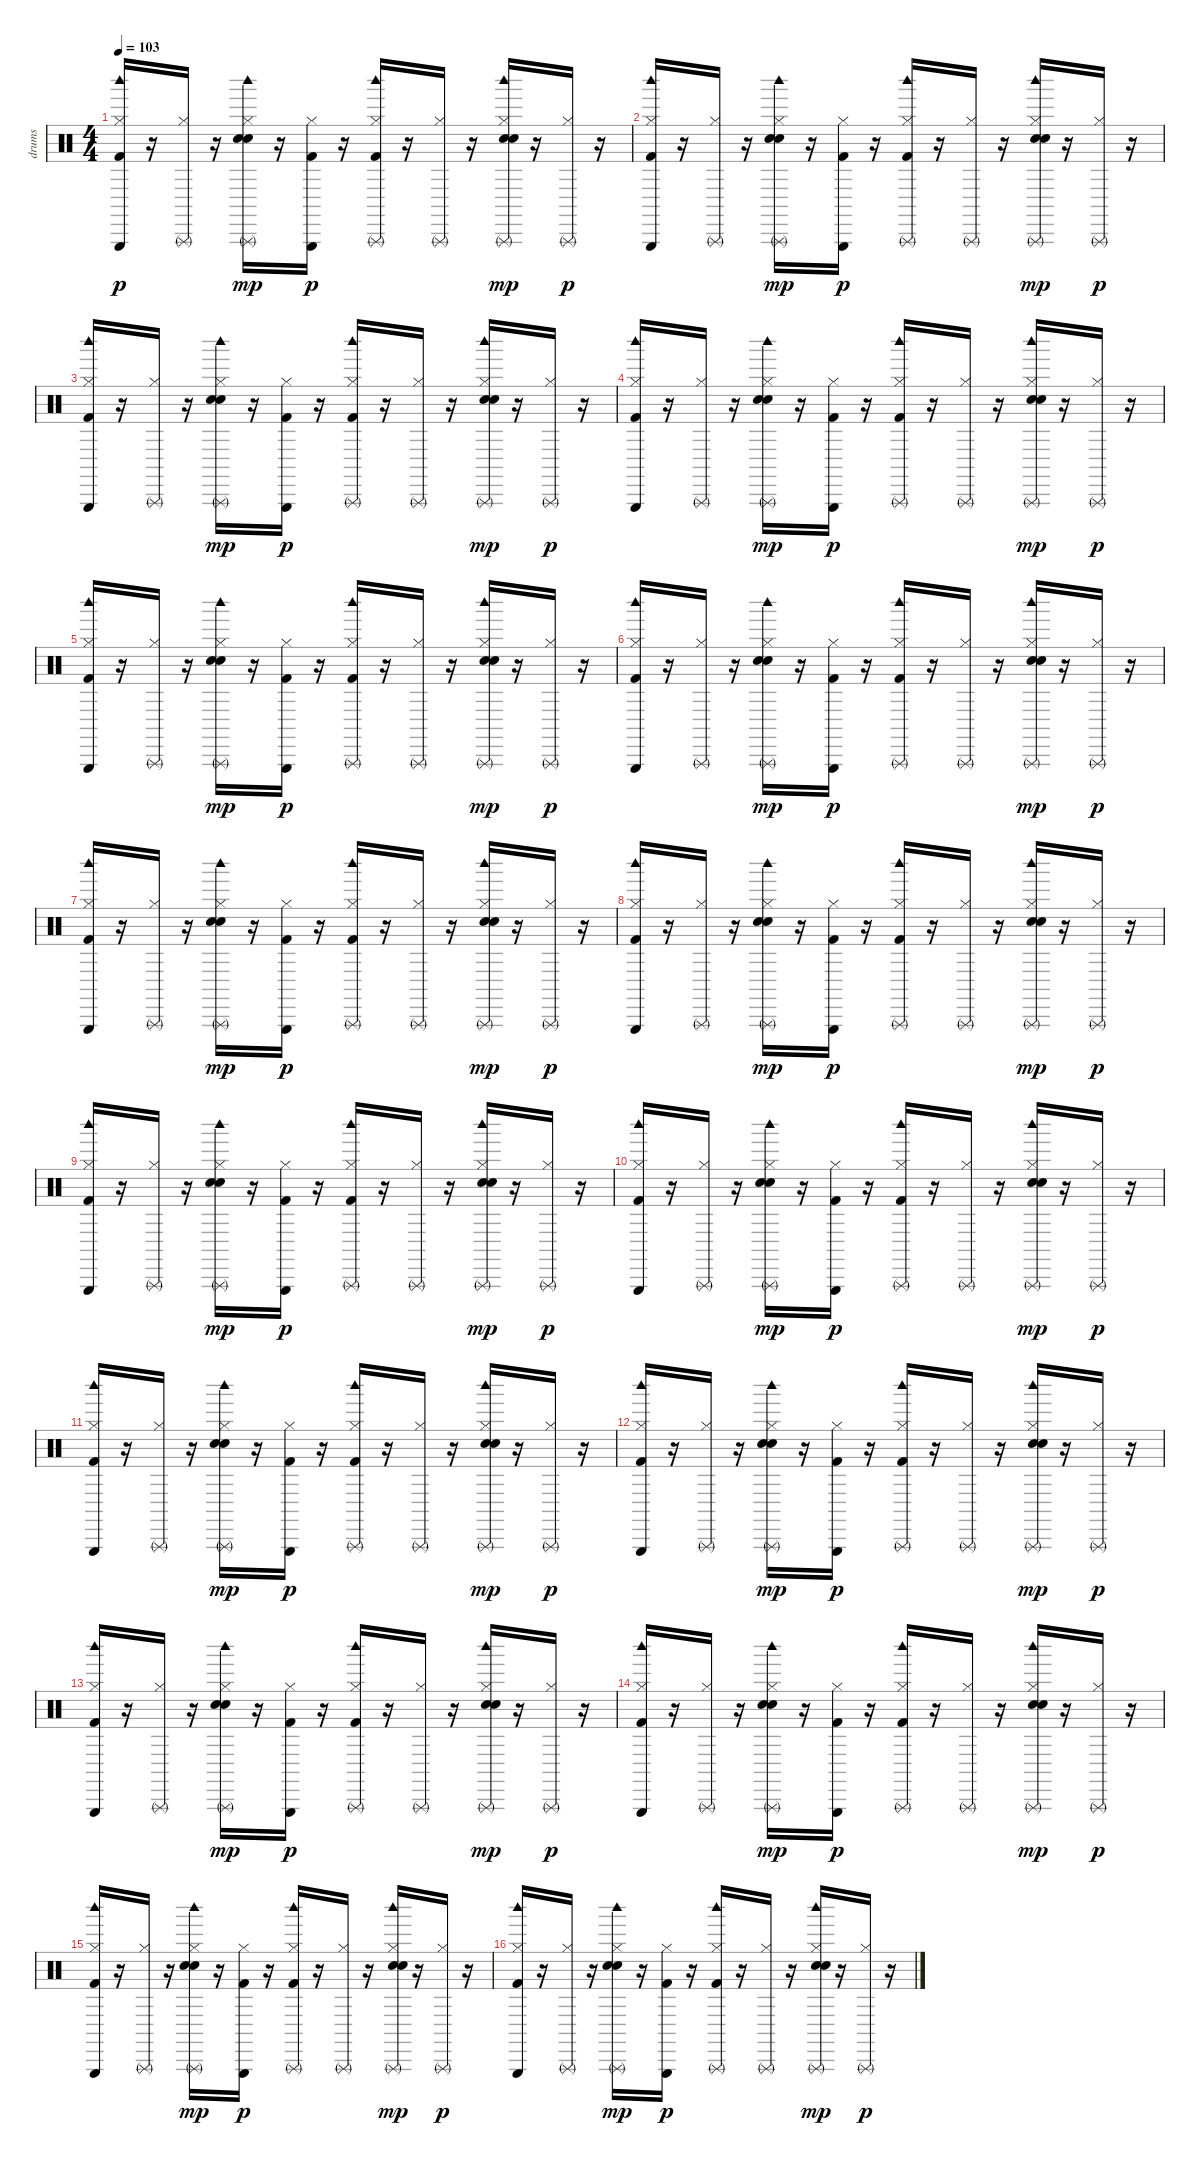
\track ("drums" "drums") {instrument percussion}
\staff {score}
\articulation defaults
\ts (4 4)
\tempo 103
\clef neutral
\ks c
("Hi-Hat (closed)" "Triangle (hit)" "Woodblock high (hit)" "Kick (hit) 2").16{dy p} r.16 ("Hi-Hat (closed)" "Triangle (rnute)").16 r.16 ("Hi-Hat (closed)" "Triangle (rnute)" "Electric Snare (hit)" "Snare (hit) 2" "Woodblock high (hit)").16{dy mp} r.16 ("Hi-Hat (closed)" "Triangle (hit)" "Kick (hit) 2").16{dy p} r.16 ("Hi-Hat (closed)" "Triangle (rnute)" "Woodblock high (hit)" "Kick (hit) 2").16 r.16 ("Hi-Hat (closed)" "Triangle (rnute)").16 r.16 ("Hi-Hat (closed)" "Triangle (rnute)" "Electric Snare (hit)" "Snare (hit) 2" "Woodblock high (hit)").16{dy mp} r.16 ("Hi-Hat (closed)" "Triangle (rnute)").16{dy p} r.16 |
("Hi-Hat (closed)" "Triangle (hit)" "Woodblock high (hit)" "Kick (hit) 2").16 r.16 ("Hi-Hat (closed)" "Triangle (rnute)").16 r.16 ("Hi-Hat (closed)" "Triangle (rnute)" "Electric Snare (hit)" "Snare (hit) 2" "Woodblock high (hit)").16{dy mp} r.16 ("Hi-Hat (closed)" "Triangle (hit)" "Kick (hit) 2").16{dy p} r.16 ("Hi-Hat (closed)" "Triangle (rnute)" "Woodblock high (hit)" "Kick (hit) 2").16 r.16 ("Hi-Hat (closed)" "Triangle (rnute)").16 r.16 ("Hi-Hat (closed)" "Triangle (rnute)" "Electric Snare (hit)" "Snare (hit) 2" "Woodblock high (hit)").16{dy mp} r.16 ("Hi-Hat (closed)" "Triangle (rnute)").16{dy p} r.16 |
("Hi-Hat (closed)" "Triangle (hit)" "Woodblock high (hit)" "Kick (hit) 2").16 r.16 ("Hi-Hat (closed)" "Triangle (rnute)").16 r.16 ("Hi-Hat (closed)" "Triangle (rnute)" "Electric Snare (hit)" "Snare (hit) 2" "Woodblock high (hit)").16{dy mp} r.16 ("Hi-Hat (closed)" "Triangle (hit)" "Kick (hit) 2").16{dy p} r.16 ("Hi-Hat (closed)" "Triangle (rnute)" "Woodblock high (hit)" "Kick (hit) 2").16 r.16 ("Hi-Hat (closed)" "Triangle (rnute)").16 r.16 ("Hi-Hat (closed)" "Triangle (rnute)" "Electric Snare (hit)" "Snare (hit) 2" "Woodblock high (hit)").16{dy mp} r.16 ("Hi-Hat (closed)" "Triangle (rnute)").16{dy p} r.16 |
("Hi-Hat (closed)" "Triangle (hit)" "Woodblock high (hit)" "Kick (hit) 2").16 r.16 ("Hi-Hat (closed)" "Triangle (rnute)").16 r.16 ("Hi-Hat (closed)" "Triangle (rnute)" "Electric Snare (hit)" "Snare (hit) 2" "Woodblock high (hit)").16{dy mp} r.16 ("Hi-Hat (closed)" "Triangle (hit)" "Kick (hit) 2").16{dy p} r.16 ("Hi-Hat (closed)" "Triangle (rnute)" "Woodblock high (hit)" "Kick (hit) 2").16 r.16 ("Hi-Hat (closed)" "Triangle (rnute)").16 r.16 ("Hi-Hat (closed)" "Triangle (rnute)" "Electric Snare (hit)" "Snare (hit) 2" "Woodblock high (hit)").16{dy mp} r.16 ("Hi-Hat (closed)" "Triangle (rnute)").16{dy p} r.16 |
("Hi-Hat (closed)" "Triangle (hit)" "Woodblock high (hit)" "Kick (hit) 2").16 r.16 ("Hi-Hat (closed)" "Triangle (rnute)").16 r.16 ("Hi-Hat (closed)" "Triangle (rnute)" "Electric Snare (hit)" "Snare (hit) 2" "Woodblock high (hit)").16{dy mp} r.16 ("Hi-Hat (closed)" "Triangle (hit)" "Kick (hit) 2").16{dy p} r.16 ("Hi-Hat (closed)" "Triangle (rnute)" "Woodblock high (hit)" "Kick (hit) 2").16 r.16 ("Hi-Hat (closed)" "Triangle (rnute)").16 r.16 ("Hi-Hat (closed)" "Triangle (rnute)" "Electric Snare (hit)" "Snare (hit) 2" "Woodblock high (hit)").16{dy mp} r.16 ("Hi-Hat (closed)" "Triangle (rnute)").16{dy p} r.16 |
("Hi-Hat (closed)" "Triangle (hit)" "Woodblock high (hit)" "Kick (hit) 2").16 r.16 ("Hi-Hat (closed)" "Triangle (rnute)").16 r.16 ("Hi-Hat (closed)" "Triangle (rnute)" "Electric Snare (hit)" "Snare (hit) 2" "Woodblock high (hit)").16{dy mp} r.16 ("Hi-Hat (closed)" "Triangle (hit)" "Kick (hit) 2").16{dy p} r.16 ("Hi-Hat (closed)" "Triangle (rnute)" "Woodblock high (hit)" "Kick (hit) 2").16 r.16 ("Hi-Hat (closed)" "Triangle (rnute)").16 r.16 ("Hi-Hat (closed)" "Triangle (rnute)" "Electric Snare (hit)" "Snare (hit) 2" "Woodblock high (hit)").16{dy mp} r.16 ("Hi-Hat (closed)" "Triangle (rnute)").16{dy p} r.16 |
("Hi-Hat (closed)" "Triangle (hit)" "Woodblock high (hit)" "Kick (hit) 2").16 r.16 ("Hi-Hat (closed)" "Triangle (rnute)").16 r.16 ("Hi-Hat (closed)" "Triangle (rnute)" "Electric Snare (hit)" "Snare (hit) 2" "Woodblock high (hit)").16{dy mp} r.16 ("Hi-Hat (closed)" "Triangle (hit)" "Kick (hit) 2").16{dy p} r.16 ("Hi-Hat (closed)" "Triangle (rnute)" "Woodblock high (hit)" "Kick (hit) 2").16 r.16 ("Hi-Hat (closed)" "Triangle (rnute)").16 r.16 ("Hi-Hat (closed)" "Triangle (rnute)" "Electric Snare (hit)" "Snare (hit) 2" "Woodblock high (hit)").16{dy mp} r.16 ("Hi-Hat (closed)" "Triangle (rnute)").16{dy p} r.16 |
("Hi-Hat (closed)" "Triangle (hit)" "Woodblock high (hit)" "Kick (hit) 2").16 r.16 ("Hi-Hat (closed)" "Triangle (rnute)").16 r.16 ("Hi-Hat (closed)" "Triangle (rnute)" "Electric Snare (hit)" "Snare (hit) 2" "Woodblock high (hit)").16{dy mp} r.16 ("Hi-Hat (closed)" "Triangle (hit)" "Kick (hit) 2").16{dy p} r.16 ("Hi-Hat (closed)" "Triangle (rnute)" "Woodblock high (hit)" "Kick (hit) 2").16 r.16 ("Hi-Hat (closed)" "Triangle (rnute)").16 r.16 ("Hi-Hat (closed)" "Triangle (rnute)" "Electric Snare (hit)" "Snare (hit) 2" "Woodblock high (hit)").16{dy mp} r.16 ("Hi-Hat (closed)" "Triangle (rnute)").16{dy p} r.16 |
("Hi-Hat (closed)" "Triangle (hit)" "Woodblock high (hit)" "Kick (hit) 2").16 r.16 ("Hi-Hat (closed)" "Triangle (rnute)").16 r.16 ("Hi-Hat (closed)" "Triangle (rnute)" "Electric Snare (hit)" "Snare (hit) 2" "Woodblock high (hit)").16{dy mp} r.16 ("Hi-Hat (closed)" "Triangle (hit)" "Kick (hit) 2").16{dy p} r.16 ("Hi-Hat (closed)" "Triangle (rnute)" "Woodblock high (hit)" "Kick (hit) 2").16 r.16 ("Hi-Hat (closed)" "Triangle (rnute)").16 r.16 ("Hi-Hat (closed)" "Triangle (rnute)" "Electric Snare (hit)" "Snare (hit) 2" "Woodblock high (hit)").16{dy mp} r.16 ("Hi-Hat (closed)" "Triangle (rnute)").16{dy p} r.16 |
("Hi-Hat (closed)" "Triangle (hit)" "Woodblock high (hit)" "Kick (hit) 2").16 r.16 ("Hi-Hat (closed)" "Triangle (rnute)").16 r.16 ("Hi-Hat (closed)" "Triangle (rnute)" "Electric Snare (hit)" "Snare (hit) 2" "Woodblock high (hit)").16{dy mp} r.16 ("Hi-Hat (closed)" "Triangle (hit)" "Kick (hit) 2").16{dy p} r.16 ("Hi-Hat (closed)" "Triangle (rnute)" "Woodblock high (hit)" "Kick (hit) 2").16 r.16 ("Hi-Hat (closed)" "Triangle (rnute)").16 r.16 ("Hi-Hat (closed)" "Triangle (rnute)" "Electric Snare (hit)" "Snare (hit) 2" "Woodblock high (hit)").16{dy mp} r.16 ("Hi-Hat (closed)" "Triangle (rnute)").16{dy p} r.16 |
("Hi-Hat (closed)" "Triangle (hit)" "Woodblock high (hit)" "Kick (hit) 2").16 r.16 ("Hi-Hat (closed)" "Triangle (rnute)").16 r.16 ("Hi-Hat (closed)" "Triangle (rnute)" "Electric Snare (hit)" "Snare (hit) 2" "Woodblock high (hit)").16{dy mp} r.16 ("Hi-Hat (closed)" "Triangle (hit)" "Kick (hit) 2").16{dy p} r.16 ("Hi-Hat (closed)" "Triangle (rnute)" "Woodblock high (hit)" "Kick (hit) 2").16 r.16 ("Hi-Hat (closed)" "Triangle (rnute)").16 r.16 ("Hi-Hat (closed)" "Triangle (rnute)" "Electric Snare (hit)" "Snare (hit) 2" "Woodblock high (hit)").16{dy mp} r.16 ("Hi-Hat (closed)" "Triangle (rnute)").16{dy p} r.16 |
("Hi-Hat (closed)" "Triangle (hit)" "Woodblock high (hit)" "Kick (hit) 2").16 r.16 ("Hi-Hat (closed)" "Triangle (rnute)").16 r.16 ("Hi-Hat (closed)" "Triangle (rnute)" "Electric Snare (hit)" "Snare (hit) 2" "Woodblock high (hit)").16{dy mp} r.16 ("Hi-Hat (closed)" "Triangle (hit)" "Kick (hit) 2").16{dy p} r.16 ("Hi-Hat (closed)" "Triangle (rnute)" "Woodblock high (hit)" "Kick (hit) 2").16 r.16 ("Hi-Hat (closed)" "Triangle (rnute)").16 r.16 ("Hi-Hat (closed)" "Triangle (rnute)" "Electric Snare (hit)" "Snare (hit) 2" "Woodblock high (hit)").16{dy mp} r.16 ("Hi-Hat (closed)" "Triangle (rnute)").16{dy p} r.16 |
("Hi-Hat (closed)" "Triangle (hit)" "Woodblock high (hit)" "Kick (hit) 2").16 r.16 ("Hi-Hat (closed)" "Triangle (rnute)").16 r.16 ("Hi-Hat (closed)" "Triangle (rnute)" "Electric Snare (hit)" "Snare (hit) 2" "Woodblock high (hit)").16{dy mp} r.16 ("Hi-Hat (closed)" "Triangle (hit)" "Kick (hit) 2").16{dy p} r.16 ("Hi-Hat (closed)" "Triangle (rnute)" "Woodblock high (hit)" "Kick (hit) 2").16 r.16 ("Hi-Hat (closed)" "Triangle (rnute)").16 r.16 ("Hi-Hat (closed)" "Triangle (rnute)" "Electric Snare (hit)" "Snare (hit) 2" "Woodblock high (hit)").16{dy mp} r.16 ("Hi-Hat (closed)" "Triangle (rnute)").16{dy p} r.16 |
("Hi-Hat (closed)" "Triangle (hit)" "Woodblock high (hit)" "Kick (hit) 2").16 r.16 ("Hi-Hat (closed)" "Triangle (rnute)").16 r.16 ("Hi-Hat (closed)" "Triangle (rnute)" "Electric Snare (hit)" "Snare (hit) 2" "Woodblock high (hit)").16{dy mp} r.16 ("Hi-Hat (closed)" "Triangle (hit)" "Kick (hit) 2").16{dy p} r.16 ("Hi-Hat (closed)" "Triangle (rnute)" "Woodblock high (hit)" "Kick (hit) 2").16 r.16 ("Hi-Hat (closed)" "Triangle (rnute)").16 r.16 ("Hi-Hat (closed)" "Triangle (rnute)" "Electric Snare (hit)" "Snare (hit) 2" "Woodblock high (hit)").16{dy mp} r.16 ("Hi-Hat (closed)" "Triangle (rnute)").16{dy p} r.16 |
("Hi-Hat (closed)" "Triangle (hit)" "Woodblock high (hit)" "Kick (hit) 2").16 r.16 ("Hi-Hat (closed)" "Triangle (rnute)").16 r.16 ("Hi-Hat (closed)" "Triangle (rnute)" "Electric Snare (hit)" "Snare (hit) 2" "Woodblock high (hit)").16{dy mp} r.16 ("Hi-Hat (closed)" "Triangle (hit)" "Kick (hit) 2").16{dy p} r.16 ("Hi-Hat (closed)" "Triangle (rnute)" "Woodblock high (hit)" "Kick (hit) 2").16 r.16 ("Hi-Hat (closed)" "Triangle (rnute)").16 r.16 ("Hi-Hat (closed)" "Triangle (rnute)" "Electric Snare (hit)" "Snare (hit) 2" "Woodblock high (hit)").16{dy mp} r.16 ("Hi-Hat (closed)" "Triangle (rnute)").16{dy p} r.16 |
("Hi-Hat (closed)" "Triangle (hit)" "Woodblock high (hit)" "Kick (hit) 2").16 r.16 ("Hi-Hat (closed)" "Triangle (rnute)").16 r.16 ("Hi-Hat (closed)" "Triangle (rnute)" "Electric Snare (hit)" "Snare (hit) 2" "Woodblock high (hit)").16{dy mp} r.16 ("Hi-Hat (closed)" "Triangle (hit)" "Kick (hit) 2").16{dy p} r.16 ("Hi-Hat (closed)" "Triangle (rnute)" "Woodblock high (hit)" "Kick (hit) 2").16 r.16 ("Hi-Hat (closed)" "Triangle (rnute)").16 r.16 ("Hi-Hat (closed)" "Triangle (rnute)" "Electric Snare (hit)" "Snare (hit) 2" "Woodblock high (hit)").16{dy mp} r.16 ("Hi-Hat (closed)" "Triangle (rnute)").16{dy p} r.16
